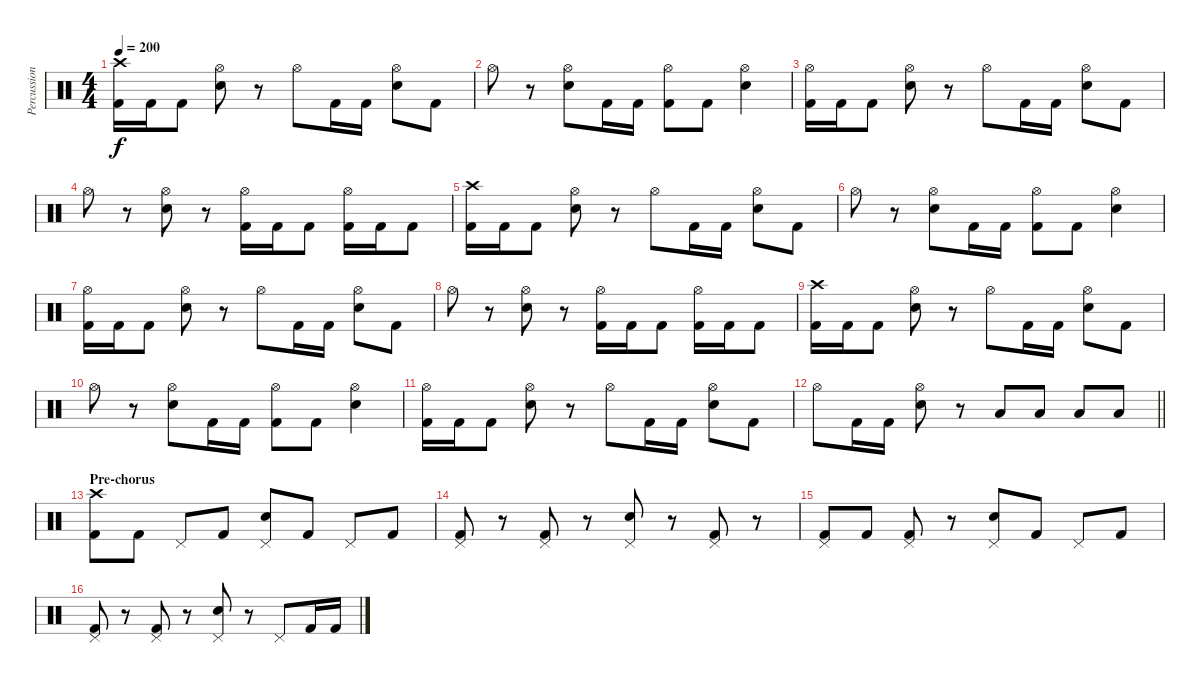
\track ("Percussion" "Percussion") {instrument percussion}
\staff {score}
\articulation defaults
\ts (4 4)
\tempo 200
\clef neutral
\ks c
("Crash high (hit)" "Kick (hit) 2").16{dy f} "Kick (hit) 2".16 "Kick (hit) 2".8 ("Hi-Hat (open)" "Snare (hit) 2").8 r.8 "Hi-Hat (open)".8 "Kick (hit) 2".16 "Kick (hit) 2".16 ("Hi-Hat (open)" "Snare (hit) 2").8 "Kick (hit) 2".8 |
"Hi-Hat (open)".8 r.8 ("Hi-Hat (open)" "Snare (hit) 2").8 "Kick (hit) 2".16 "Kick (hit) 2".16 ("Hi-Hat (open)" "Kick (hit) 2").8 "Kick (hit) 2".8 ("Hi-Hat (open)" "Snare (hit) 2").4 |
("Hi-Hat (open)" "Kick (hit) 2").16 "Kick (hit) 2".16 "Kick (hit) 2".8 ("Hi-Hat (open)" "Snare (hit) 2").8 r.8 "Hi-Hat (open)".8 "Kick (hit) 2".16 "Kick (hit) 2".16 ("Hi-Hat (open)" "Snare (hit) 2").8 "Kick (hit) 2".8 |
"Hi-Hat (open)".8 r.8 ("Hi-Hat (open)" "Snare (hit) 2").8 r.8 ("Hi-Hat (open)" "Kick (hit) 2").16 "Kick (hit) 2".16 "Kick (hit) 2".8 ("Hi-Hat (open)" "Kick (hit) 2").16 "Kick (hit) 2".16 "Kick (hit) 2".8 |
("Crash high (hit)" "Kick (hit) 2").16 "Kick (hit) 2".16 "Kick (hit) 2".8 ("Hi-Hat (open)" "Snare (hit) 2").8 r.8 "Hi-Hat (open)".8 "Kick (hit) 2".16 "Kick (hit) 2".16 ("Hi-Hat (open)" "Snare (hit) 2").8 "Kick (hit) 2".8 |
"Hi-Hat (open)".8 r.8 ("Hi-Hat (open)" "Snare (hit) 2").8 "Kick (hit) 2".16 "Kick (hit) 2".16 ("Hi-Hat (open)" "Kick (hit) 2").8 "Kick (hit) 2".8 ("Hi-Hat (open)" "Snare (hit) 2").4 |
("Hi-Hat (open)" "Kick (hit) 2").16 "Kick (hit) 2".16 "Kick (hit) 2".8 ("Hi-Hat (open)" "Snare (hit) 2").8 r.8 "Hi-Hat (open)".8 "Kick (hit) 2".16 "Kick (hit) 2".16 ("Hi-Hat (open)" "Snare (hit) 2").8 "Kick (hit) 2".8 |
"Hi-Hat (open)".8 r.8 ("Hi-Hat (open)" "Snare (hit) 2").8 r.8 ("Hi-Hat (open)" "Kick (hit) 2").16 "Kick (hit) 2".16 "Kick (hit) 2".8 ("Hi-Hat (open)" "Kick (hit) 2").16 "Kick (hit) 2".16 "Kick (hit) 2".8 |
("Crash high (hit)" "Kick (hit) 2").16 "Kick (hit) 2".16 "Kick (hit) 2".8 ("Hi-Hat (open)" "Snare (hit) 2").8 r.8 "Hi-Hat (open)".8 "Kick (hit) 2".16 "Kick (hit) 2".16 ("Hi-Hat (open)" "Snare (hit) 2").8 "Kick (hit) 2".8 |
"Hi-Hat (open)".8 r.8 ("Hi-Hat (open)" "Snare (hit) 2").8 "Kick (hit) 2".16 "Kick (hit) 2".16 ("Hi-Hat (open)" "Kick (hit) 2").8 "Kick (hit) 2".8 ("Hi-Hat (open)" "Snare (hit) 2").4 |
("Hi-Hat (open)" "Kick (hit) 2").16 "Kick (hit) 2".16 "Kick (hit) 2".8 ("Hi-Hat (open)" "Snare (hit) 2").8 r.8 "Hi-Hat (open)".8 "Kick (hit) 2".16 "Kick (hit) 2".16 ("Hi-Hat (open)" "Snare (hit) 2").8 "Kick (hit) 2".8 |
\barLineRight lightlight "Hi-Hat (open)".8 "Kick (hit) 2".16 "Kick (hit) 2".16
("Hi-Hat (open)" "Snare (hit) 2").8 r.8 "Low Floor Tom (hit)".8 "Low Floor Tom (hit)".8 "Low Floor Tom (hit)".8 "Low Floor Tom (hit)".8 |
\section ("" "Pre-chorus")
("Crash high (hit)" "Kick (hit) 2").8 "Kick (hit) 2".8 "Pedal Hi-Hat (hit)".8 "Kick (hit) 2".8 ("Pedal Hi-Hat (hit)" "Snare (hit) 2").8 "Kick (hit) 2".8 "Pedal Hi-Hat (hit)".8 "Kick (hit) 2".8 |
("Pedal Hi-Hat (hit)" "Kick (hit) 2").8 r.8 ("Pedal Hi-Hat (hit)" "Kick (hit) 2").8 r.8 ("Pedal Hi-Hat (hit)" "Snare (hit) 2").8 r.8 ("Pedal Hi-Hat (hit)" "Kick (hit) 2").8 r.8 |
("Pedal Hi-Hat (hit)" "Kick (hit) 2").8 "Kick (hit) 2".8 ("Pedal Hi-Hat (hit)" "Kick (hit) 2").8 r.8 ("Pedal Hi-Hat (hit)" "Snare (hit) 2").8 "Kick (hit) 2".8 "Pedal Hi-Hat (hit)".8 "Kick (hit) 2".8 |
("Pedal Hi-Hat (hit)" "Kick (hit) 2").8 r.8 ("Pedal Hi-Hat (hit)" "Kick (hit) 2").8 r.8 ("Pedal Hi-Hat (hit)" "Snare (hit) 2").8 r.8 "Pedal Hi-Hat (hit)".8 "Kick (hit) 2".16 "Kick (hit) 2".16
